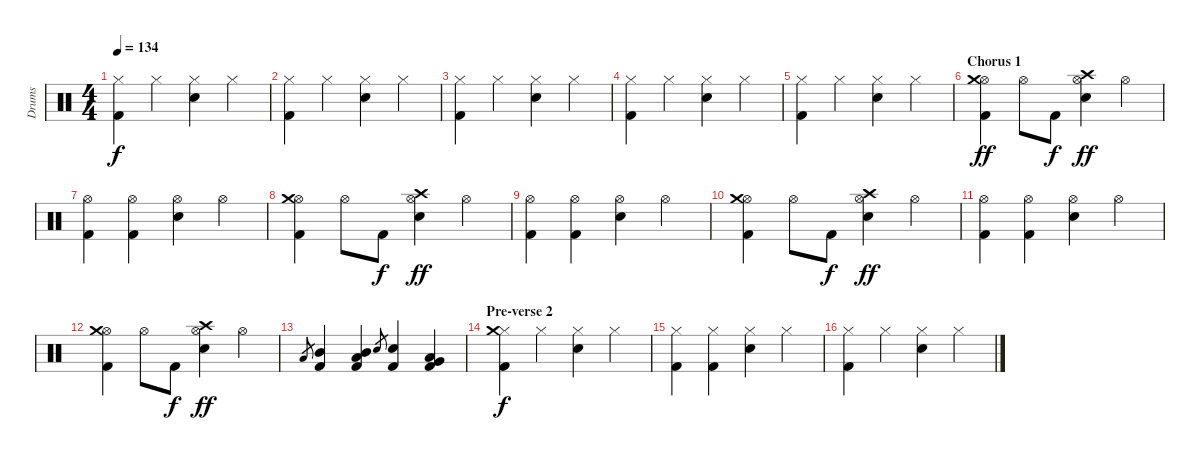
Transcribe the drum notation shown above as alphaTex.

\track ("Drums" "Drums") {instrument percussion}
\staff {score}
\articulation defaults
\ts (4 4)
\tempo 134
\clef neutral
\ks c
("Hi-Hat (closed)" "Kick (hit) 2").4{dy f} "Hi-Hat (closed)".4 ("Hi-Hat (closed)" "Snare (hit) 2").4 "Hi-Hat (closed)".4 |
("Hi-Hat (closed)" "Kick (hit) 2").4 "Hi-Hat (closed)".4 ("Hi-Hat (closed)" "Snare (hit) 2").4 "Hi-Hat (closed)".4 |
("Hi-Hat (closed)" "Kick (hit) 2").4 "Hi-Hat (closed)".4 ("Hi-Hat (closed)" "Snare (hit) 2").4 "Hi-Hat (closed)".4 |
("Hi-Hat (closed)" "Kick (hit) 2").4 "Hi-Hat (closed)".4 ("Hi-Hat (closed)" "Snare (hit) 2").4 "Hi-Hat (closed)".4 |
("Hi-Hat (closed)" "Kick (hit) 2").4 "Hi-Hat (closed)".4 ("Hi-Hat (closed)" "Snare (hit) 2").4 "Hi-Hat (closed)".4 |
\section ("" "Chorus 1")
("Hi-Hat (open)" "Crash medium (hit)" "Kick (hit) 2").4{dy ff} "Hi-Hat (open)".8 "Kick (hit) 2".8{dy f} ("Hi-Hat (open)" "Crash high (hit)" "Snare (hit) 2").4{dy ff} "Hi-Hat (open)".4 |
("Hi-Hat (open)" "Kick (hit) 2").4 ("Hi-Hat (open)" "Kick (hit) 2").4 ("Hi-Hat (open)" "Snare (hit) 2").4 "Hi-Hat (open)".4 |
("Hi-Hat (open)" "Crash medium (hit)" "Kick (hit) 2").4 "Hi-Hat (open)".8 "Kick (hit) 2".8{dy f} ("Hi-Hat (open)" "Crash high (hit)" "Snare (hit) 2").4{dy ff} "Hi-Hat (open)".4 |
("Hi-Hat (open)" "Kick (hit) 2").4 ("Hi-Hat (open)" "Kick (hit) 2").4 ("Hi-Hat (open)" "Snare (hit) 2").4 "Hi-Hat (open)".4 |
("Hi-Hat (open)" "Crash medium (hit)" "Kick (hit) 2").4 "Hi-Hat (open)".8 "Kick (hit) 2".8{dy f} ("Hi-Hat (open)" "Crash high (hit)" "Snare (hit) 2").4{dy ff} "Hi-Hat (open)".4 |
("Hi-Hat (open)" "Kick (hit) 2").4 ("Hi-Hat (open)" "Kick (hit) 2").4 ("Hi-Hat (open)" "Snare (hit) 2").4 "Hi-Hat (open)".4 |
("Hi-Hat (open)" "Crash medium (hit)" "Kick (hit) 2").4 "Hi-Hat (open)".8 "Kick (hit) 2".8{dy f} ("Hi-Hat (open)" "Crash high (hit)" "Snare (hit) 2").4{dy ff} "Hi-Hat (open)".4 |
"Low Tom (hit)".8{gr} ("Mid Tom (hit)" "Kick (hit) 2").4 ("Mid Tom (hit)" "Low Tom (hit)" "Kick (hit) 2").4 "Snare (hit) 2".8{gr} ("Snare (hit) 2" "Kick (hit) 2").4 ("Very Low Tom (hit)" "Low Tom (hit)" "Kick (hit) 2").4 |
\section ("" "Pre-verse 2")
("Hi-Hat (closed)" "Crash medium (hit)" "Kick (hit) 2").4{dy f} "Hi-Hat (closed)".4 ("Hi-Hat (closed)" "Snare (hit) 2").4 "Hi-Hat (closed)".4 |
("Hi-Hat (closed)" "Kick (hit) 2").4 ("Hi-Hat (closed)" "Kick (hit) 2").4 ("Hi-Hat (closed)" "Snare (hit) 2").4 "Hi-Hat (closed)".4 |
("Hi-Hat (closed)" "Kick (hit) 2").4 "Hi-Hat (closed)".4 ("Hi-Hat (closed)" "Snare (hit) 2").4 "Hi-Hat (closed)".4
